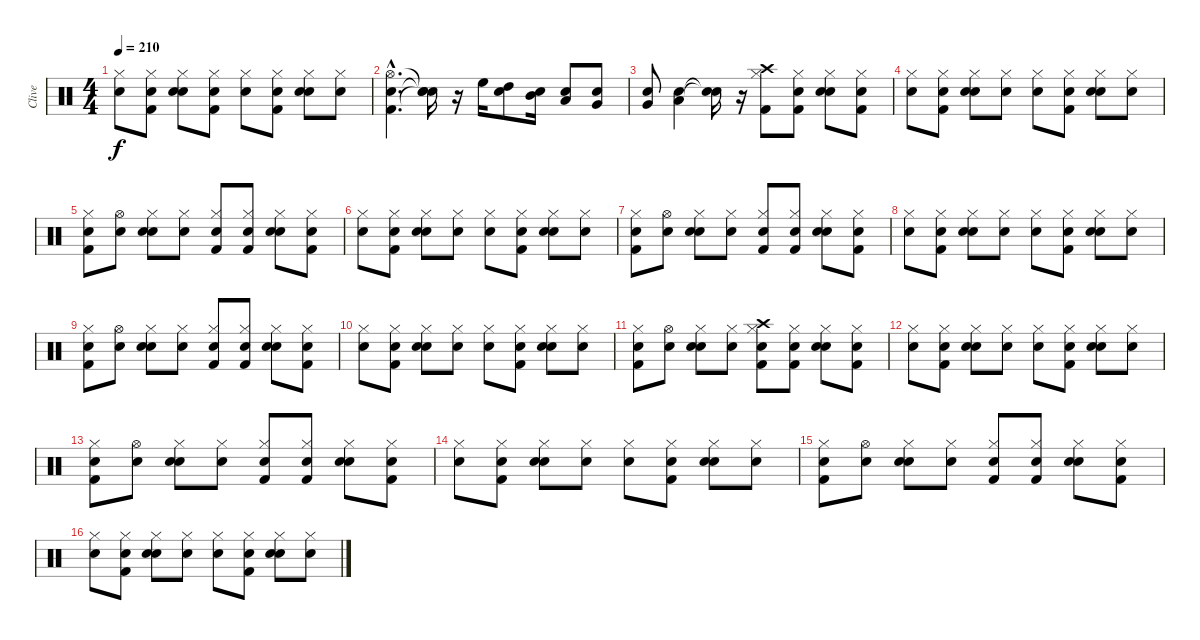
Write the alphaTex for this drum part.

\track ("Clive" "Clive") {instrument percussion}
\staff {score}
\articulation defaults
\ts (4 4)
\tempo 210
\clef neutral
\ks c
("Snare (hit)" "Hi-Hat (closed)").8{dy f} ("Snare (hit)" "Kick (hit) 2" "Hi-Hat (closed)").8 ("Snare (hit)" "Snare (hit) 2" "Hi-Hat (closed)").8 ("Snare (hit)" "Kick (hit) 2" "Hi-Hat (closed)").8 ("Snare (hit)" "Hi-Hat (closed)").8 ("Snare (hit)" "Kick (hit) 2" "Hi-Hat (closed)").8 ("Snare (hit)" "Snare (hit) 2" "Hi-Hat (closed)").8 ("Snare (hit)" "Hi-Hat (closed)").8 |
("Snare (hit)"{hac} "Kick (hit) 2"{hac} "Hi-Hat (open)"{hac}).4{d} ("Snare (hit)"{t} "Snare (hit)"{t} "Snare (hit)"{t}).16 r.16 "High Floor Tom (hit)".16 ("Snare (hit)" "High Tom (hit)").8 ("Snare (hit)" "Mid Tom (hit)").16 ("Snare (hit)" "Low Tom (hit)").8 ("Snare (hit)" "Very Low Tom (hit)").8 |
("Snare (hit)" "Very Low Tom (hit)").8 ("Snare (hit)" "Low Floor Tom (hit)").4 ("Snare (hit)"{t} "Snare (hit)"{t}).16 r.16 ("Kick (hit) 2" "Hi-Hat (closed)" "Crash high (hit)").8 ("Snare (hit)" "Kick (hit) 2" "Hi-Hat (closed)").8 ("Snare (hit)" "Snare (hit) 2" "Hi-Hat (closed)").8 ("Snare (hit)" "Kick (hit) 2" "Hi-Hat (closed)").8 |
("Snare (hit)" "Hi-Hat (closed)").8 ("Snare (hit)" "Kick (hit) 2" "Hi-Hat (closed)").8 ("Snare (hit)" "Snare (hit) 2" "Hi-Hat (closed)").8 ("Snare (hit)" "Hi-Hat (closed)").8 ("Snare (hit)" "Hi-Hat (closed)").8 ("Snare (hit)" "Kick (hit) 2" "Hi-Hat (closed)").8 ("Snare (hit)" "Snare (hit) 2" "Hi-Hat (closed)").8 ("Snare (hit)" "Hi-Hat (closed)").8 |
("Snare (hit)" "Kick (hit) 2" "Hi-Hat (closed)").8 ("Snare (hit)" "Hi-Hat (open)").8 ("Snare (hit)" "Snare (hit) 2" "Hi-Hat (closed)").8 ("Snare (hit)" "Hi-Hat (closed)").8 ("Snare (hit)" "Kick (hit) 2" "Hi-Hat (closed)").8 ("Snare (hit)" "Kick (hit) 2" "Hi-Hat (closed)").8 ("Snare (hit)" "Snare (hit) 2" "Hi-Hat (closed)").8 ("Snare (hit)" "Kick (hit) 2" "Hi-Hat (closed)").8 |
("Snare (hit)" "Hi-Hat (closed)").8 ("Snare (hit)" "Kick (hit) 2" "Hi-Hat (closed)").8 ("Snare (hit)" "Snare (hit) 2" "Hi-Hat (closed)").8 ("Snare (hit)" "Hi-Hat (closed)").8 ("Snare (hit)" "Hi-Hat (closed)").8 ("Snare (hit)" "Kick (hit) 2" "Hi-Hat (closed)").8 ("Snare (hit)" "Snare (hit) 2" "Hi-Hat (closed)").8 ("Snare (hit)" "Hi-Hat (closed)").8 |
("Snare (hit)" "Kick (hit) 2" "Hi-Hat (closed)").8 ("Snare (hit)" "Hi-Hat (open)").8 ("Snare (hit)" "Snare (hit) 2" "Hi-Hat (closed)").8 ("Snare (hit)" "Hi-Hat (closed)").8 ("Snare (hit)" "Kick (hit) 2" "Hi-Hat (closed)").8 ("Snare (hit)" "Kick (hit) 2" "Hi-Hat (closed)").8 ("Snare (hit)" "Snare (hit) 2" "Hi-Hat (closed)").8 ("Snare (hit)" "Kick (hit) 2" "Hi-Hat (closed)").8 |
("Snare (hit)" "Hi-Hat (closed)").8 ("Snare (hit)" "Kick (hit) 2" "Hi-Hat (closed)").8 ("Snare (hit)" "Snare (hit) 2" "Hi-Hat (closed)").8 ("Snare (hit)" "Hi-Hat (closed)").8 ("Snare (hit)" "Hi-Hat (closed)").8 ("Snare (hit)" "Kick (hit) 2" "Hi-Hat (closed)").8 ("Snare (hit)" "Snare (hit) 2" "Hi-Hat (closed)").8 ("Snare (hit)" "Hi-Hat (closed)").8 |
("Snare (hit)" "Kick (hit) 2" "Hi-Hat (closed)").8 ("Snare (hit)" "Hi-Hat (open)").8 ("Snare (hit)" "Snare (hit) 2" "Hi-Hat (closed)").8 ("Snare (hit)" "Hi-Hat (closed)").8 ("Snare (hit)" "Kick (hit) 2" "Hi-Hat (closed)").8 ("Snare (hit)" "Kick (hit) 2" "Hi-Hat (closed)").8 ("Snare (hit)" "Snare (hit) 2" "Hi-Hat (closed)").8 ("Snare (hit)" "Kick (hit) 2" "Hi-Hat (closed)").8 |
("Snare (hit)" "Hi-Hat (closed)").8 ("Snare (hit)" "Kick (hit) 2" "Hi-Hat (closed)").8 ("Snare (hit)" "Snare (hit) 2" "Hi-Hat (closed)").8 ("Snare (hit)" "Hi-Hat (closed)").8 ("Snare (hit)" "Hi-Hat (closed)").8 ("Snare (hit)" "Kick (hit) 2" "Hi-Hat (closed)").8 ("Snare (hit)" "Snare (hit) 2" "Hi-Hat (closed)").8 ("Snare (hit)" "Hi-Hat (closed)").8 |
("Snare (hit)" "Kick (hit) 2" "Hi-Hat (closed)").8 ("Snare (hit)" "Hi-Hat (open)").8 ("Snare (hit)" "Snare (hit) 2" "Hi-Hat (closed)").8 ("Snare (hit)" "Hi-Hat (closed)").8 ("Snare (hit)" "Kick (hit) 2" "Hi-Hat (closed)" "Crash high (hit)").8 ("Snare (hit)" "Kick (hit) 2" "Hi-Hat (closed)").8 ("Snare (hit)" "Snare (hit) 2" "Hi-Hat (closed)").8 ("Snare (hit)" "Kick (hit) 2" "Hi-Hat (closed)").8 |
("Snare (hit)" "Hi-Hat (closed)").8 ("Snare (hit)" "Kick (hit) 2" "Hi-Hat (closed)").8 ("Snare (hit)" "Snare (hit) 2" "Hi-Hat (closed)").8 ("Snare (hit)" "Hi-Hat (closed)").8 ("Snare (hit)" "Hi-Hat (closed)").8 ("Snare (hit)" "Kick (hit) 2" "Hi-Hat (closed)").8 ("Snare (hit)" "Snare (hit) 2" "Hi-Hat (closed)").8 ("Snare (hit)" "Hi-Hat (closed)").8 |
("Snare (hit)" "Kick (hit) 2" "Hi-Hat (closed)").8 ("Snare (hit)" "Hi-Hat (open)").8 ("Snare (hit)" "Snare (hit) 2" "Hi-Hat (closed)").8 ("Snare (hit)" "Hi-Hat (closed)").8 ("Snare (hit)" "Kick (hit) 2" "Hi-Hat (closed)").8 ("Snare (hit)" "Kick (hit) 2" "Hi-Hat (closed)").8 ("Snare (hit)" "Snare (hit) 2" "Hi-Hat (closed)").8 ("Snare (hit)" "Kick (hit) 2" "Hi-Hat (closed)").8 |
("Snare (hit)" "Hi-Hat (closed)").8 ("Snare (hit)" "Kick (hit) 2" "Hi-Hat (closed)").8 ("Snare (hit)" "Snare (hit) 2" "Hi-Hat (closed)").8 ("Snare (hit)" "Hi-Hat (closed)").8 ("Snare (hit)" "Hi-Hat (closed)").8 ("Snare (hit)" "Kick (hit) 2" "Hi-Hat (closed)").8 ("Snare (hit)" "Snare (hit) 2" "Hi-Hat (closed)").8 ("Snare (hit)" "Hi-Hat (closed)").8 |
("Snare (hit)" "Kick (hit) 2" "Hi-Hat (closed)").8 ("Snare (hit)" "Hi-Hat (open)").8 ("Snare (hit)" "Snare (hit) 2" "Hi-Hat (closed)").8 ("Snare (hit)" "Hi-Hat (closed)").8 ("Snare (hit)" "Kick (hit) 2" "Hi-Hat (closed)").8 ("Snare (hit)" "Kick (hit) 2" "Hi-Hat (closed)").8 ("Snare (hit)" "Snare (hit) 2" "Hi-Hat (closed)").8 ("Snare (hit)" "Kick (hit) 2" "Hi-Hat (closed)").8 |
("Snare (hit)" "Hi-Hat (closed)").8 ("Snare (hit)" "Kick (hit) 2" "Hi-Hat (closed)").8 ("Snare (hit)" "Snare (hit) 2" "Hi-Hat (closed)").8 ("Snare (hit)" "Hi-Hat (closed)").8 ("Snare (hit)" "Hi-Hat (closed)").8 ("Snare (hit)" "Kick (hit) 2" "Hi-Hat (closed)").8 ("Snare (hit)" "Snare (hit) 2" "Hi-Hat (closed)").8 ("Snare (hit)" "Hi-Hat (closed)").8
